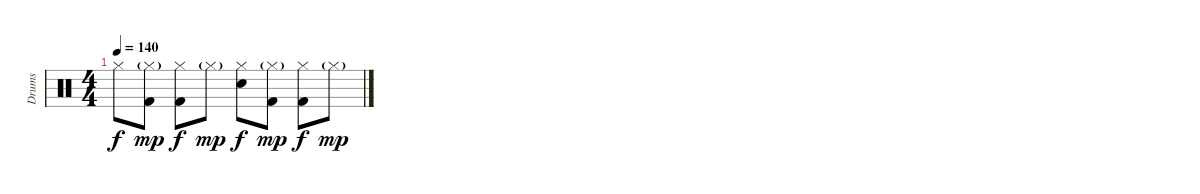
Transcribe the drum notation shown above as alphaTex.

\track ("Drums" "Drums") {instrument percussion}
\staff {score}
\articulation defaults
\ts (4 4)
\tempo 140
\clef neutral
\ks c "Hi-Hat (closed)".8{dy f}
("Hi-Hat (closed)"{g} "Kick (hit) 2").8{dy mp} ("Hi-Hat (closed)" "Kick (hit) 2").8{dy f} "Hi-Hat (closed)"{g}.8{dy mp} ("Hi-Hat (closed)" "Electric Snare (hit)").8{dy f} ("Hi-Hat (closed)"{g} "Kick (hit) 2").8{dy mp} ("Hi-Hat (closed)" "Kick (hit) 2").8{dy f} "Hi-Hat (closed)"{g}.8{dy mp}
